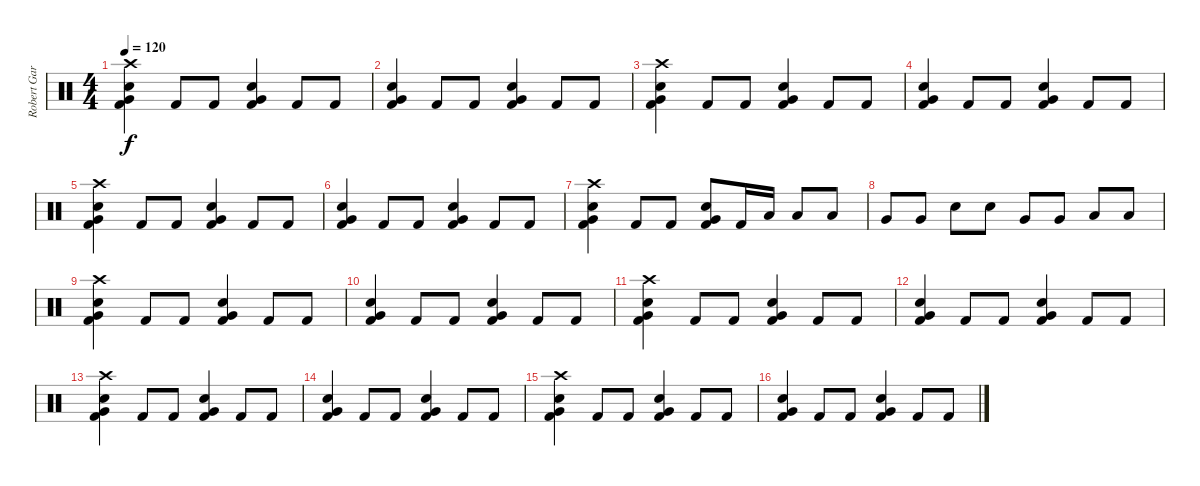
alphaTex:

\track ("Robert Garven" "Robert Gar") {instrument percussion}
\staff {score}
\articulation defaults
\ts (4 4)
\tempo 120
\clef neutral
\ks c
("Crash high (hit)" "Very Low Tom (hit)" "Electric Snare (hit)" "Kick (hit) 2").4{dy f} "Kick (hit) 2".8 "Kick (hit) 2".8 ("Very Low Tom (hit)" "Electric Snare (hit)" "Kick (hit) 2").4 "Kick (hit) 2".8 "Kick (hit) 2".8 |
("Very Low Tom (hit)" "Electric Snare (hit)" "Kick (hit) 2").4 "Kick (hit) 2".8 "Kick (hit) 2".8 ("Very Low Tom (hit)" "Electric Snare (hit)" "Kick (hit) 2").4 "Kick (hit) 2".8 "Kick (hit) 2".8 |
("Crash high (hit)" "Very Low Tom (hit)" "Electric Snare (hit)" "Kick (hit) 2").4 "Kick (hit) 2".8 "Kick (hit) 2".8 ("Very Low Tom (hit)" "Electric Snare (hit)" "Kick (hit) 2").4 "Kick (hit) 2".8 "Kick (hit) 2".8 |
("Very Low Tom (hit)" "Electric Snare (hit)" "Kick (hit) 2").4 "Kick (hit) 2".8 "Kick (hit) 2".8 ("Very Low Tom (hit)" "Electric Snare (hit)" "Kick (hit) 2").4 "Kick (hit) 2".8 "Kick (hit) 2".8 |
("Crash high (hit)" "Very Low Tom (hit)" "Electric Snare (hit)" "Kick (hit) 2").4 "Kick (hit) 2".8 "Kick (hit) 2".8 ("Very Low Tom (hit)" "Electric Snare (hit)" "Kick (hit) 2").4 "Kick (hit) 2".8 "Kick (hit) 2".8 |
("Very Low Tom (hit)" "Electric Snare (hit)" "Kick (hit) 2").4 "Kick (hit) 2".8 "Kick (hit) 2".8 ("Very Low Tom (hit)" "Electric Snare (hit)" "Kick (hit) 2").4 "Kick (hit) 2".8 "Kick (hit) 2".8 |
("Crash high (hit)" "Very Low Tom (hit)" "Electric Snare (hit)" "Kick (hit) 2").4 "Kick (hit) 2".8 "Kick (hit) 2".8 ("Very Low Tom (hit)" "Electric Snare (hit)" "Kick (hit) 2").8 "Kick (hit) 2".16 "Low Tom (hit)".16 "Low Tom (hit)".8 "Low Tom (hit)".8 |
"Very Low Tom (hit)".8 "Very Low Tom (hit)".8 "Electric Snare (hit)".8 "Electric Snare (hit)".8 "Very Low Tom (hit)".8 "Very Low Tom (hit)".8 "Low Tom (hit)".8 "Low Tom (hit)".8 |
("Crash high (hit)" "Very Low Tom (hit)" "Electric Snare (hit)" "Kick (hit) 2").4 "Kick (hit) 2".8 "Kick (hit) 2".8 ("Very Low Tom (hit)" "Electric Snare (hit)" "Kick (hit) 2").4 "Kick (hit) 2".8 "Kick (hit) 2".8 |
("Very Low Tom (hit)" "Electric Snare (hit)" "Kick (hit) 2").4 "Kick (hit) 2".8 "Kick (hit) 2".8 ("Very Low Tom (hit)" "Electric Snare (hit)" "Kick (hit) 2").4 "Kick (hit) 2".8 "Kick (hit) 2".8 |
("Crash high (hit)" "Very Low Tom (hit)" "Electric Snare (hit)" "Kick (hit) 2").4 "Kick (hit) 2".8 "Kick (hit) 2".8 ("Very Low Tom (hit)" "Electric Snare (hit)" "Kick (hit) 2").4 "Kick (hit) 2".8 "Kick (hit) 2".8 |
("Very Low Tom (hit)" "Electric Snare (hit)" "Kick (hit) 2").4 "Kick (hit) 2".8 "Kick (hit) 2".8 ("Very Low Tom (hit)" "Electric Snare (hit)" "Kick (hit) 2").4 "Kick (hit) 2".8 "Kick (hit) 2".8 |
("Crash high (hit)" "Very Low Tom (hit)" "Electric Snare (hit)" "Kick (hit) 2").4 "Kick (hit) 2".8 "Kick (hit) 2".8 ("Very Low Tom (hit)" "Electric Snare (hit)" "Kick (hit) 2").4 "Kick (hit) 2".8 "Kick (hit) 2".8 |
("Very Low Tom (hit)" "Electric Snare (hit)" "Kick (hit) 2").4 "Kick (hit) 2".8 "Kick (hit) 2".8 ("Very Low Tom (hit)" "Electric Snare (hit)" "Kick (hit) 2").4 "Kick (hit) 2".8 "Kick (hit) 2".8 |
("Crash high (hit)" "Very Low Tom (hit)" "Electric Snare (hit)" "Kick (hit) 2").4 "Kick (hit) 2".8 "Kick (hit) 2".8 ("Very Low Tom (hit)" "Electric Snare (hit)" "Kick (hit) 2").4 "Kick (hit) 2".8 "Kick (hit) 2".8 |
("Very Low Tom (hit)" "Electric Snare (hit)" "Kick (hit) 2").4 "Kick (hit) 2".8 "Kick (hit) 2".8 ("Very Low Tom (hit)" "Electric Snare (hit)" "Kick (hit) 2").4 "Kick (hit) 2".8 "Kick (hit) 2".8
